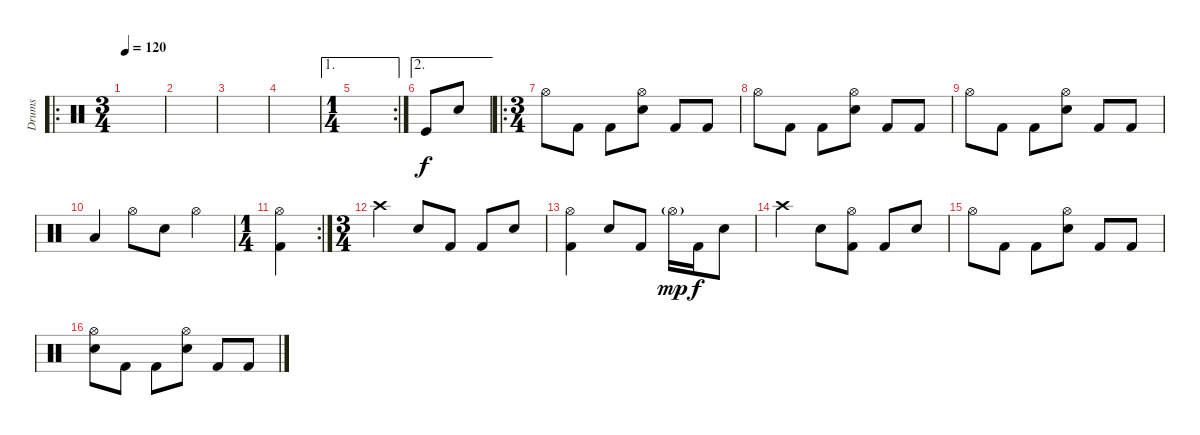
\track ("Drums" "Drums") {instrument percussion}
\staff {score}
\articulation defaults
\ro
\ts (3 4)
\tempo 120
\clef neutral
\ks c
|
|
|
|
\ae 1
\rc 2
\ts (1 4)
|
\ae 2 "Kick (hit)".8 "Electric Snare (hit)".8
|
\ro
\ts (3 4)
"Hi-Hat (open)".8 "Kick (hit) 2".8 "Kick (hit) 2".8 ("Electric Snare (hit)" "Hi-Hat (open)").8 "Kick (hit) 2".8 "Kick (hit) 2".8 |
"Hi-Hat (open)".8 "Kick (hit) 2".8 "Kick (hit) 2".8 ("Electric Snare (hit)" "Hi-Hat (open)").8 "Kick (hit) 2".8 "Kick (hit) 2".8 |
"Hi-Hat (open)".8 "Kick (hit) 2".8 "Kick (hit) 2".8 ("Electric Snare (hit)" "Hi-Hat (open)").8 "Kick (hit) 2".8 "Kick (hit) 2".8 |
"Low Tom (hit)".4 "Hi-Hat (open)".8 "Snare (hit) 2".8 "Hi-Hat (open)".4 |
\rc 2
\ts (1 4)
("Hi-Hat (open)" "Kick (hit) 2").4 |
\ts (3 4)
"Crash high (hit)".4 "Electric Snare (hit)".8 "Kick (hit) 2".8 "Kick (hit) 2".8 "Electric Snare (hit)".8 |
("Kick (hit) 2" "Hi-Hat (open)").4 "Electric Snare (hit)".8 "Kick (hit) 2".8 "Hi-Hat (open)"{g}.16{dy mp} "Kick (hit) 2".16{dy f} "Electric Snare (hit)".8 |
"Crash high (hit)".4 "Electric Snare (hit)".8 ("Kick (hit) 2" "Hi-Hat (open)").8 "Kick (hit) 2".8 "Electric Snare (hit)".8 |
"Hi-Hat (open)".8 "Kick (hit) 2".8 "Kick (hit) 2".8 ("Electric Snare (hit)" "Hi-Hat (open)").8 "Kick (hit) 2".8 "Kick (hit) 2".8 |
("Snare (hit) 2" "Hi-Hat (open)").8 "Kick (hit) 2".8 "Kick (hit) 2".8 ("Electric Snare (hit)" "Hi-Hat (open)").8 "Kick (hit) 2".8 "Kick (hit) 2".8
